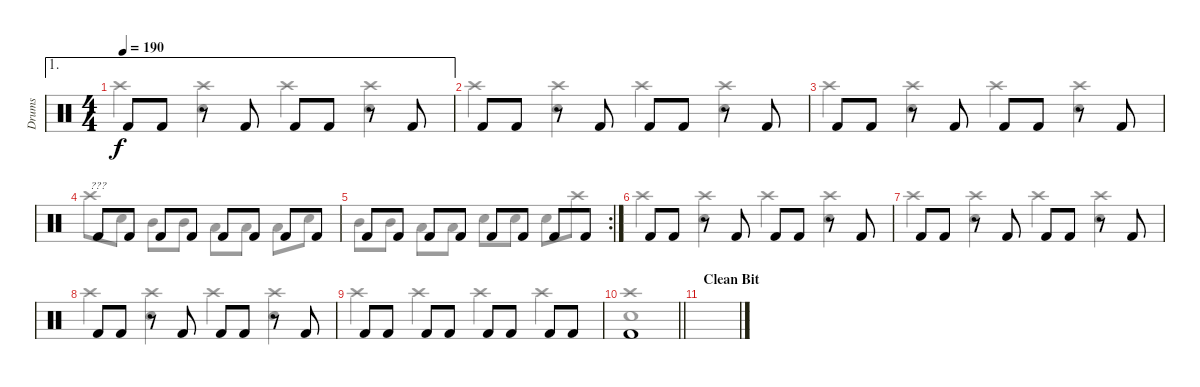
\track ("Drums" "Drums") {instrument percussion}
\staff {score}
\articulation defaults
\voice
\ae 1
\ts (4 4)
\tempo 190
\clef neutral
\ks c "Kick (hit) 2".8{dy f} "Kick (hit) 2".8
r.8 "Kick (hit) 2".8 "Kick (hit) 2".8 "Kick (hit) 2".8 r.8 "Kick (hit) 2".8 |
"Kick (hit) 2".8 "Kick (hit) 2".8 r.8 "Kick (hit) 2".8 "Kick (hit) 2".8 "Kick (hit) 2".8 r.8 "Kick (hit) 2".8 |
"Kick (hit) 2".8 "Kick (hit) 2".8 r.8 "Kick (hit) 2".8 "Kick (hit) 2".8 "Kick (hit) 2".8 r.8 "Kick (hit) 2".8 |
"Kick (hit) 2".8{txt "???"} "Kick (hit) 2".8 "Kick (hit) 2".8 "Kick (hit) 2".8 "Kick (hit) 2".8 "Kick (hit) 2".8 "Kick (hit) 2".8 "Kick (hit) 2".8 |
\rc 2 "Kick (hit) 2".8 "Kick (hit) 2".8 "Kick (hit) 2".8 "Kick (hit) 2".8 "Kick (hit) 2".8 "Kick (hit) 2".8 "Kick (hit) 2".8 "Kick (hit) 2".8
|
"Kick (hit) 2".8 "Kick (hit) 2".8 r.8 "Kick (hit) 2".8 "Kick (hit) 2".8 "Kick (hit) 2".8 r.8 "Kick (hit) 2".8 |
"Kick (hit) 2".8 "Kick (hit) 2".8 r.8 "Kick (hit) 2".8 "Kick (hit) 2".8 "Kick (hit) 2".8 r.8 "Kick (hit) 2".8 |
"Kick (hit) 2".8 "Kick (hit) 2".8 r.8 "Kick (hit) 2".8 "Kick (hit) 2".8 "Kick (hit) 2".8 r.8 "Kick (hit) 2".8 |
"Kick (hit) 2".8 "Kick (hit) 2".8 "Kick (hit) 2".8 "Kick (hit) 2".8 "Kick (hit) 2".8 "Kick (hit) 2".8 "Kick (hit) 2".8 "Kick (hit) 2".8 |
\barLineRight lightlight "Kick (hit) 2".1
|
\section ("" "Clean Bit")
|
|
|
|
|
\voice
\clef neutral
\ottava regular
\simile none
\ks c "Crash high (hit)".4{dy f}
("Electric Snare (hit)" "Crash high (hit)").4 "Crash high (hit)".4 ("Electric Snare (hit)" "Crash high (hit)").4 |
"Crash high (hit)".4 ("Electric Snare (hit)" "Crash high (hit)").4 "Crash high (hit)".4 ("Electric Snare (hit)" "Crash high (hit)").4 |
"Crash high (hit)".4 ("Electric Snare (hit)" "Crash high (hit)").4 "Crash high (hit)".4 ("Electric Snare (hit)" "Crash high (hit)").4 |
"Crash high (hit)".8 "Electric Snare (hit)".8 "Mid Tom (hit)".8 "Mid Tom (hit)".8 "Low Floor Tom (hit)".8 "Low Floor Tom (hit)".8 "Low Floor Tom (hit)".8 "Electric Snare (hit)".8 |
"Mid Tom (hit)".8 "Mid Tom (hit)".8 "Low Floor Tom (hit)".8 "Low Floor Tom (hit)".8 "Electric Snare (hit)".8 "Electric Snare (hit)".8 "Electric Snare (hit)".8 "Crash high (hit)".8 |
"Crash high (hit)".4 ("Electric Snare (hit)" "Crash high (hit)").4 "Crash high (hit)".4 ("Electric Snare (hit)" "Crash high (hit)").4 |
"Crash high (hit)".4 ("Electric Snare (hit)" "Crash high (hit)").4 "Crash high (hit)".4 ("Electric Snare (hit)" "Crash high (hit)").4 |
"Crash high (hit)".4 ("Electric Snare (hit)" "Crash high (hit)").4 "Crash high (hit)".4 ("Electric Snare (hit)" "Crash high (hit)").4 |
"Crash high (hit)".4 "Crash high (hit)".4 "Crash high (hit)".4 "Crash high (hit)".4 |
\barLineRight lightlight
("Electric Snare (hit)" "Crash high (hit)").1 |
|
|
|
|
|
